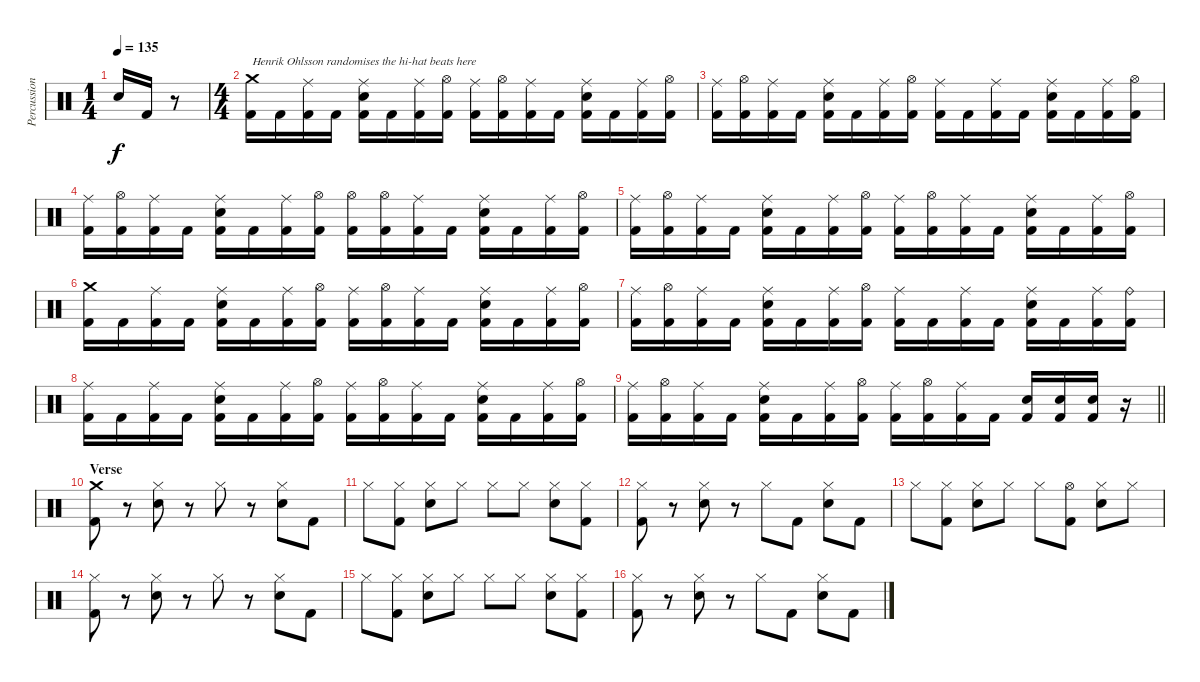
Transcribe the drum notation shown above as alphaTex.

\track ("Percussion" "Percussion") {instrument percussion}
\staff {score}
\articulation defaults
\ts (1 4)
\tempo 135
\clef neutral
\ks c "Electric Snare (hit)".16{dy f} "Kick (hit) 2".16
r.8 |
\ts (4 4)
("Crash medium (hit)" "Kick (hit) 2").16{txt "Henrik Ohlsson randomises the hi-hat beats here"} "Kick (hit) 2".16 ("Ride (middle)" "Kick (hit) 2").16 "Kick (hit) 2".16 ("Ride (middle)" "Electric Snare (hit)" "Kick (hit) 2").16 "Kick (hit) 2".16 ("Ride (middle)" "Kick (hit) 2").16 ("Hi-Hat (open)" "Kick (hit) 2").16 ("Ride (middle)" "Kick (hit) 2").16 ("Hi-Hat (open)" "Kick (hit) 2").16 ("Ride (middle)" "Kick (hit) 2").16 "Kick (hit) 2".16 ("Ride (middle)" "Electric Snare (hit)" "Kick (hit) 2").16 "Kick (hit) 2".16 ("Ride (middle)" "Kick (hit) 2").16 ("Hi-Hat (open)" "Kick (hit) 2").16 |
("Ride (middle)" "Kick (hit) 2").16 ("Hi-Hat (open)" "Kick (hit) 2").16 ("Ride (middle)" "Kick (hit) 2").16 "Kick (hit) 2".16 ("Ride (middle)" "Electric Snare (hit)" "Kick (hit) 2").16 "Kick (hit) 2".16 ("Ride (middle)" "Kick (hit) 2").16 ("Hi-Hat (open)" "Kick (hit) 2").16 ("Ride (middle)" "Kick (hit) 2").16 "Kick (hit) 2".16 ("Ride (middle)" "Kick (hit) 2").16 "Kick (hit) 2".16 ("Ride (middle)" "Electric Snare (hit)" "Kick (hit) 2").16 "Kick (hit) 2".16 ("Ride (middle)" "Kick (hit) 2").16 ("Hi-Hat (open)" "Kick (hit) 2").16 |
("Ride (middle)" "Kick (hit) 2").16 ("Hi-Hat (open)" "Kick (hit) 2").16 ("Ride (middle)" "Kick (hit) 2").16 "Kick (hit) 2".16 ("Ride (middle)" "Electric Snare (hit)" "Kick (hit) 2").16 "Kick (hit) 2".16 ("Ride (middle)" "Kick (hit) 2").16 ("Hi-Hat (open)" "Kick (hit) 2").16 ("Hi-Hat (open)" "Kick (hit) 2").16 ("Hi-Hat (open)" "Kick (hit) 2").16 ("Ride (middle)" "Kick (hit) 2").16 "Kick (hit) 2".16 ("Ride (middle)" "Electric Snare (hit)" "Kick (hit) 2").16 "Kick (hit) 2".16 ("Ride (middle)" "Kick (hit) 2").16 ("Hi-Hat (open)" "Kick (hit) 2").16 |
("Ride (middle)" "Kick (hit) 2").16 ("Hi-Hat (open)" "Kick (hit) 2").16 ("Ride (middle)" "Kick (hit) 2").16 "Kick (hit) 2".16 ("Ride (middle)" "Electric Snare (hit)" "Kick (hit) 2").16 "Kick (hit) 2".16 ("Ride (middle)" "Kick (hit) 2").16 ("Hi-Hat (open)" "Kick (hit) 2").16 ("Ride (middle)" "Kick (hit) 2").16 ("Hi-Hat (open)" "Kick (hit) 2").16 ("Ride (middle)" "Kick (hit) 2").16 "Kick (hit) 2".16 ("Ride (middle)" "Electric Snare (hit)" "Kick (hit) 2").16 "Kick (hit) 2".16 ("Ride (middle)" "Kick (hit) 2").16 ("Hi-Hat (open)" "Kick (hit) 2").16 |
("Crash medium (hit)" "Kick (hit) 2").16 "Kick (hit) 2".16 ("Ride (middle)" "Kick (hit) 2").16 "Kick (hit) 2".16 ("Ride (middle)" "Electric Snare (hit)" "Kick (hit) 2").16 "Kick (hit) 2".16 ("Ride (middle)" "Kick (hit) 2").16 ("Hi-Hat (open)" "Kick (hit) 2").16 ("Ride (middle)" "Kick (hit) 2").16 ("Hi-Hat (open)" "Kick (hit) 2").16 ("Ride (middle)" "Kick (hit) 2").16 "Kick (hit) 2".16 ("Ride (middle)" "Electric Snare (hit)" "Kick (hit) 2").16 "Kick (hit) 2".16 ("Ride (middle)" "Kick (hit) 2").16 ("Hi-Hat (open)" "Kick (hit) 2").16 |
("Ride (middle)" "Kick (hit) 2").16 ("Hi-Hat (open)" "Kick (hit) 2").16 ("Ride (middle)" "Kick (hit) 2").16 "Kick (hit) 2".16 ("Ride (middle)" "Electric Snare (hit)" "Kick (hit) 2").16 "Kick (hit) 2".16 ("Ride (middle)" "Kick (hit) 2").16 ("Hi-Hat (open)" "Kick (hit) 2").16 ("Ride (middle)" "Kick (hit) 2").16 "Kick (hit) 2".16 ("Ride (middle)" "Kick (hit) 2").16 "Kick (hit) 2".16 ("Ride (middle)" "Electric Snare (hit)" "Kick (hit) 2").16 "Kick (hit) 2".16 ("Ride (middle)" "Kick (hit) 2").16 ("Ride (bell)" "Kick (hit) 2").16 |
("Ride (middle)" "Kick (hit) 2").16 "Kick (hit) 2".16 ("Ride (middle)" "Kick (hit) 2").16 "Kick (hit) 2".16 ("Ride (middle)" "Electric Snare (hit)" "Kick (hit) 2").16 "Kick (hit) 2".16 ("Ride (middle)" "Kick (hit) 2").16 ("Hi-Hat (open)" "Kick (hit) 2").16 ("Ride (middle)" "Kick (hit) 2").16 ("Hi-Hat (open)" "Kick (hit) 2").16 ("Ride (middle)" "Kick (hit) 2").16 "Kick (hit) 2".16 ("Ride (middle)" "Electric Snare (hit)" "Kick (hit) 2").16 "Kick (hit) 2".16 ("Ride (middle)" "Kick (hit) 2").16 ("Hi-Hat (open)" "Kick (hit) 2").16 |
\barLineRight lightlight
("Ride (middle)" "Kick (hit) 2").16 ("Hi-Hat (open)" "Kick (hit) 2").16 ("Ride (middle)" "Kick (hit) 2").16 "Kick (hit) 2".16 ("Ride (middle)" "Electric Snare (hit)" "Kick (hit) 2").16 "Kick (hit) 2".16 ("Ride (middle)" "Kick (hit) 2").16 ("Hi-Hat (open)" "Kick (hit) 2").16 ("Ride (middle)" "Kick (hit) 2").16 ("Hi-Hat (open)" "Kick (hit) 2").16 ("Ride (middle)" "Kick (hit) 2").16 "Kick (hit) 2".16 ("Electric Snare (hit)" "Kick (hit) 2").16 ("Electric Snare (hit)" "Kick (hit) 2").16 ("Electric Snare (hit)" "Kick (hit) 2").16 r.16 |
\section ("" "Verse")
("Crash medium (hit)" "Kick (hit) 2").8 r.8 ("Hi-Hat (closed)" "Electric Snare (hit)").8 r.8 "Hi-Hat (closed)".8 r.8 ("Hi-Hat (closed)" "Electric Snare (hit)").8 "Kick (hit) 2".8 |
"Hi-Hat (closed)".8 ("Hi-Hat (closed)" "Kick (hit) 2").8 ("Hi-Hat (closed)" "Electric Snare (hit)").8 "Hi-Hat (closed)".8 "Hi-Hat (closed)".8 "Hi-Hat (closed)".8 ("Hi-Hat (closed)" "Electric Snare (hit)").8 ("Hi-Hat (closed)" "Kick (hit) 2").8 |
("Hi-Hat (closed)" "Kick (hit) 2").8 r.8 ("Hi-Hat (closed)" "Electric Snare (hit)").8 r.8 "Hi-Hat (closed)".8 "Kick (hit) 2".8 ("Hi-Hat (closed)" "Electric Snare (hit)").8 "Kick (hit) 2".8 |
"Hi-Hat (closed)".8 ("Hi-Hat (closed)" "Kick (hit) 2").8 ("Hi-Hat (closed)" "Electric Snare (hit)").8 "Hi-Hat (closed)".8 "Hi-Hat (closed)".8 ("Hi-Hat (open)" "Kick (hit) 2").8 ("Hi-Hat (closed)" "Electric Snare (hit)").8 "Hi-Hat (closed)".8 |
("Hi-Hat (closed)" "Kick (hit) 2").8 r.8 ("Hi-Hat (closed)" "Electric Snare (hit)").8 r.8 "Hi-Hat (closed)".8 r.8 ("Hi-Hat (closed)" "Electric Snare (hit)").8 "Kick (hit) 2".8 |
"Hi-Hat (closed)".8 ("Hi-Hat (closed)" "Kick (hit) 2").8 ("Hi-Hat (closed)" "Electric Snare (hit)").8 "Hi-Hat (closed)".8 "Hi-Hat (closed)".8 "Hi-Hat (closed)".8 ("Hi-Hat (closed)" "Electric Snare (hit)").8 ("Hi-Hat (closed)" "Kick (hit) 2").8 |
("Hi-Hat (closed)" "Kick (hit) 2").8 r.8 ("Hi-Hat (closed)" "Electric Snare (hit)").8 r.8 "Hi-Hat (closed)".8 "Kick (hit) 2".8 ("Hi-Hat (closed)" "Electric Snare (hit)").8 "Kick (hit) 2".8
